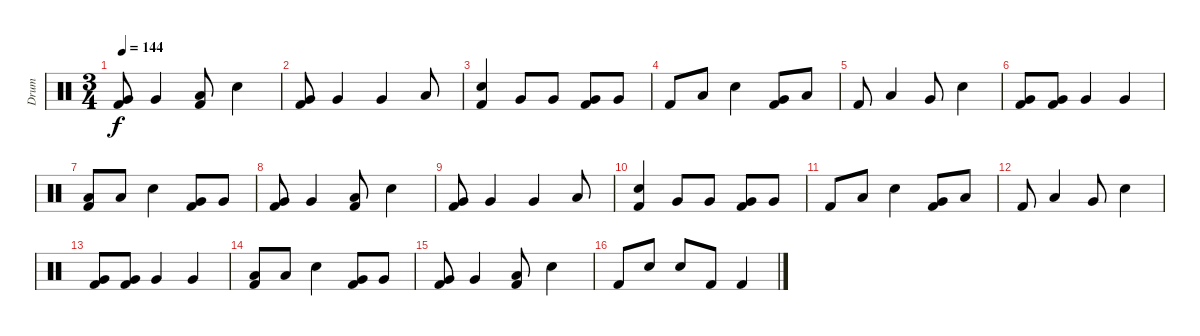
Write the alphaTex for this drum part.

\track ("Drum" "Drum") {instrument percussion}
\staff {score}
\articulation defaults
\ts (3 4)
\tempo 144
\clef neutral
\ks c
("Very Low Tom (hit)" "Kick (hit) 2").8{dy f} "Very Low Tom (hit)".4 ("Low Tom (hit)" "Kick (hit) 2").8 "Electric Snare (hit)".4 |
("Very Low Tom (hit)" "Kick (hit) 2").8 "Very Low Tom (hit)".4 "Very Low Tom (hit)".4 "Low Tom (hit)".8 |
("Electric Snare (hit)" "Kick (hit) 2").4 "Very Low Tom (hit)".8 "Very Low Tom (hit)".8 ("Very Low Tom (hit)" "Kick (hit) 2").8 "Very Low Tom (hit)".8 |
"Kick (hit) 2".8 "Low Tom (hit)".8 "Electric Snare (hit)".4 ("Very Low Tom (hit)" "Kick (hit) 2").8 "Low Tom (hit)".8 |
"Kick (hit) 2".8 "Low Tom (hit)".4 "Very Low Tom (hit)".8 "Electric Snare (hit)".4 |
("Very Low Tom (hit)" "Kick (hit) 2").8 ("Very Low Tom (hit)" "Kick (hit) 2").8 "Very Low Tom (hit)".4 "Very Low Tom (hit)".4 |
("Low Tom (hit)" "Kick (hit) 2").8 "Low Tom (hit)".8 "Electric Snare (hit)".4 ("Very Low Tom (hit)" "Kick (hit) 2").8 "Very Low Tom (hit)".8 |
("Very Low Tom (hit)" "Kick (hit) 2").8 "Very Low Tom (hit)".4 ("Low Tom (hit)" "Kick (hit) 2").8 "Electric Snare (hit)".4 |
("Very Low Tom (hit)" "Kick (hit) 2").8 "Very Low Tom (hit)".4 "Very Low Tom (hit)".4 "Low Tom (hit)".8 |
("Electric Snare (hit)" "Kick (hit) 2").4 "Very Low Tom (hit)".8 "Very Low Tom (hit)".8 ("Very Low Tom (hit)" "Kick (hit) 2").8 "Very Low Tom (hit)".8 |
"Kick (hit) 2".8 "Low Tom (hit)".8 "Electric Snare (hit)".4 ("Very Low Tom (hit)" "Kick (hit) 2").8 "Low Tom (hit)".8 |
"Kick (hit) 2".8 "Low Tom (hit)".4 "Very Low Tom (hit)".8 "Electric Snare (hit)".4 |
("Very Low Tom (hit)" "Kick (hit) 2").8 ("Very Low Tom (hit)" "Kick (hit) 2").8 "Very Low Tom (hit)".4 "Very Low Tom (hit)".4 |
("Low Tom (hit)" "Kick (hit) 2").8 "Low Tom (hit)".8 "Electric Snare (hit)".4 ("Very Low Tom (hit)" "Kick (hit) 2").8 "Very Low Tom (hit)".8 |
("Very Low Tom (hit)" "Kick (hit) 2").8 "Very Low Tom (hit)".4 ("Low Tom (hit)" "Kick (hit) 2").8 "Electric Snare (hit)".4 |
"Kick (hit) 2".8 "Electric Snare (hit)".8 "Electric Snare (hit)".8 "Kick (hit) 2".8 "Kick (hit) 2".4
